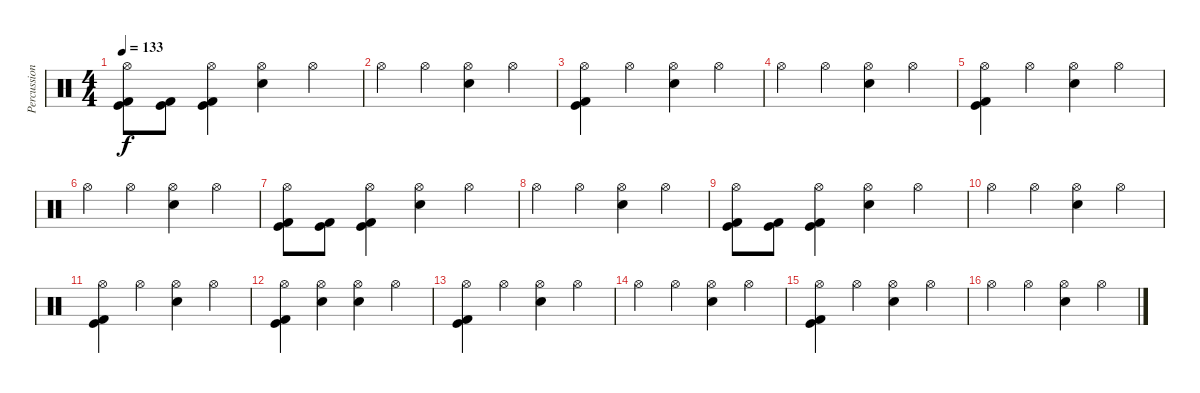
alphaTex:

\track ("Percussion" "Percussion") {instrument percussion}
\staff {score}
\articulation defaults
\ts (4 4)
\tempo 133
\clef neutral
\ks c
("Hi-Hat (open)" "Kick (hit)" "Kick (hit) 2").8{dy f} ("Kick (hit)" "Kick (hit) 2").8 ("Hi-Hat (open)" "Kick (hit)" "Kick (hit) 2").4 ("Hi-Hat (open)" "Electric Snare (hit)").4 "Hi-Hat (open)".4 |
"Hi-Hat (open)".4 "Hi-Hat (open)".4 ("Hi-Hat (open)" "Electric Snare (hit)").4 "Hi-Hat (open)".4 |
("Hi-Hat (open)" "Kick (hit)" "Kick (hit) 2").4 "Hi-Hat (open)".4 ("Hi-Hat (open)" "Electric Snare (hit)").4 "Hi-Hat (open)".4 |
"Hi-Hat (open)".4 "Hi-Hat (open)".4 ("Hi-Hat (open)" "Electric Snare (hit)").4 "Hi-Hat (open)".4 |
("Hi-Hat (open)" "Kick (hit)" "Kick (hit) 2").4 "Hi-Hat (open)".4 ("Hi-Hat (open)" "Electric Snare (hit)").4 "Hi-Hat (open)".4 |
"Hi-Hat (open)".4 "Hi-Hat (open)".4 ("Hi-Hat (open)" "Electric Snare (hit)").4 "Hi-Hat (open)".4 |
("Hi-Hat (open)" "Kick (hit)" "Kick (hit) 2").8 ("Kick (hit)" "Kick (hit) 2").8 ("Hi-Hat (open)" "Kick (hit)" "Kick (hit) 2").4 ("Hi-Hat (open)" "Electric Snare (hit)").4 "Hi-Hat (open)".4 |
"Hi-Hat (open)".4 "Hi-Hat (open)".4 ("Hi-Hat (open)" "Electric Snare (hit)").4 "Hi-Hat (open)".4 |
("Hi-Hat (open)" "Kick (hit)" "Kick (hit) 2").8 ("Kick (hit)" "Kick (hit) 2").8 ("Hi-Hat (open)" "Kick (hit)" "Kick (hit) 2").4 ("Hi-Hat (open)" "Electric Snare (hit)").4 "Hi-Hat (open)".4 |
"Hi-Hat (open)".4 "Hi-Hat (open)".4 ("Hi-Hat (open)" "Electric Snare (hit)").4 "Hi-Hat (open)".4 |
("Hi-Hat (open)" "Kick (hit)" "Kick (hit) 2").4 "Hi-Hat (open)".4 ("Hi-Hat (open)" "Electric Snare (hit)").4 "Hi-Hat (open)".4 |
("Hi-Hat (open)" "Kick (hit)" "Kick (hit) 2").4 ("Hi-Hat (open)" "Electric Snare (hit)").4 ("Hi-Hat (open)" "Electric Snare (hit)").4 "Hi-Hat (open)".4 |
("Hi-Hat (open)" "Kick (hit)" "Kick (hit) 2").4 "Hi-Hat (open)".4 ("Hi-Hat (open)" "Electric Snare (hit)").4 "Hi-Hat (open)".4 |
"Hi-Hat (open)".4 "Hi-Hat (open)".4 ("Hi-Hat (open)" "Electric Snare (hit)").4 "Hi-Hat (open)".4 |
("Hi-Hat (open)" "Kick (hit)" "Kick (hit) 2").4 "Hi-Hat (open)".4 ("Hi-Hat (open)" "Electric Snare (hit)").4 "Hi-Hat (open)".4 |
"Hi-Hat (open)".4 "Hi-Hat (open)".4 ("Hi-Hat (open)" "Electric Snare (hit)").4 "Hi-Hat (open)".4
